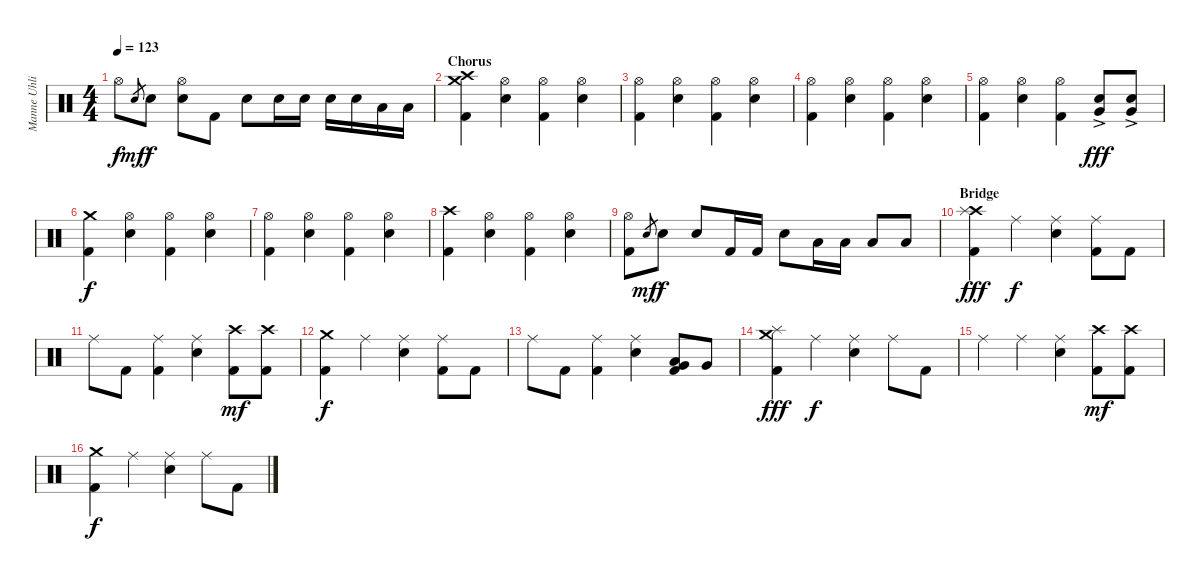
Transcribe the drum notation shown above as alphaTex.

\track ("Manne Uhlig" "Manne Uhli") {instrument percussion}
\staff {score}
\articulation defaults
\ts (4 4)
\tempo 123
\clef neutral
\ks c "Hi-Hat (open)".8{dy f} "Snare (hit) 2".8{gr dy mf} "Snare (hit) 2".8{dy f}
("Hi-Hat (open)" "Snare (hit) 2").8 "Kick (hit) 2".8 "Snare (hit) 2".8 "Snare (hit) 2".16 "Snare (hit) 2".16 "Snare (hit) 2".16 "Snare (hit) 2".16 "Low Tom (hit)".16 "Low Tom (hit)".16 |
\section ("" "Chorus")
("Crash high (hit)" "Crash medium (hit)" "Kick (hit) 2").4 ("Hi-Hat (open)" "Snare (hit) 2").4 ("Hi-Hat (open)" "Kick (hit) 2").4 ("Hi-Hat (open)" "Snare (hit) 2").4 |
("Hi-Hat (open)" "Kick (hit) 2").4 ("Hi-Hat (open)" "Snare (hit) 2").4 ("Hi-Hat (open)" "Kick (hit) 2").4 ("Hi-Hat (open)" "Snare (hit) 2").4 |
("Hi-Hat (open)" "Kick (hit) 2").4 ("Hi-Hat (open)" "Snare (hit) 2").4 ("Hi-Hat (open)" "Kick (hit) 2").4 ("Hi-Hat (open)" "Snare (hit) 2").4 |
("Hi-Hat (open)" "Kick (hit) 2").4 ("Hi-Hat (open)" "Snare (hit) 2").4 ("Hi-Hat (open)" "Kick (hit) 2").4 ("Snare (hit) 2" "Very Low Tom (hit)"{ac}).8{dy fff} ("Snare (hit) 2" "Very Low Tom (hit)"{ac}).8 |
("Crash medium (hit)" "Kick (hit) 2").4{dy f} ("Hi-Hat (open)" "Snare (hit) 2").4 ("Hi-Hat (open)" "Kick (hit) 2").4 ("Hi-Hat (open)" "Snare (hit) 2").4 |
("Hi-Hat (open)" "Kick (hit) 2").4 ("Hi-Hat (open)" "Snare (hit) 2").4 ("Hi-Hat (open)" "Kick (hit) 2").4 ("Hi-Hat (open)" "Snare (hit) 2").4 |
("Crash high (hit)" "Kick (hit) 2").4 ("Hi-Hat (open)" "Snare (hit) 2").4 ("Hi-Hat (open)" "Kick (hit) 2").4 ("Hi-Hat (open)" "Snare (hit) 2").4 |
("Hi-Hat (open)" "Kick (hit) 2").8 "Snare (hit) 2".8{gr dy mf} "Snare (hit) 2".8{dy f} "Snare (hit) 2".8 "Kick (hit) 2".16 "Kick (hit) 2".16 "Snare (hit) 2".8 "Low Tom (hit)".16 "Low Tom (hit)".16 "Low Tom (hit)".8 "Low Tom (hit)".8 |
\section ("" "Bridge")
("Crash high (hit)" "Splash (hit)" "Kick (hit) 2").4{dy fff} "Ride (middle)".4{dy f} ("Ride (middle)" "Snare (hit) 2").4 ("Ride (middle)" "Kick (hit) 2").8 "Kick (hit) 2".8 |
"Ride (middle)".8 "Kick (hit) 2".8 ("Ride (middle)" "Kick (hit) 2").4 ("Ride (middle)" "Snare (hit) 2").4 ("Crash high (hit)" "Kick (hit) 2").8{dy mf} ("Crash high (hit)" "Kick (hit) 2").8 |
("Crash medium (hit)" "Kick (hit) 2").4{dy f} "Ride (middle)".4 ("Ride (middle)" "Snare (hit) 2").4 ("Ride (middle)" "Kick (hit) 2").8 "Kick (hit) 2".8 |
"Ride (middle)".8 "Kick (hit) 2".8 ("Ride (middle)" "Kick (hit) 2").4 ("Ride (middle)" "Snare (hit) 2").4 ("Low Tom (hit)" "Very Low Tom (hit)" "Kick (hit) 2").8 "Very Low Tom (hit)".8 |
("Crash medium (hit)" "Splash (hit)" "Kick (hit) 2").4{dy fff} "Ride (middle)".4{dy f} ("Ride (middle)" "Snare (hit) 2").4 "Ride (middle)".8 "Kick (hit) 2".8 |
"Ride (middle)".4 "Ride (middle)".4 ("Ride (middle)" "Snare (hit) 2").4 ("Crash high (hit)" "Kick (hit) 2").8{dy mf} ("Crash high (hit)" "Kick (hit) 2").8 |
("Crash medium (hit)" "Kick (hit) 2").4{dy f} "Ride (middle)".4 ("Ride (middle)" "Snare (hit) 2").4 "Ride (middle)".8 "Kick (hit) 2".8
